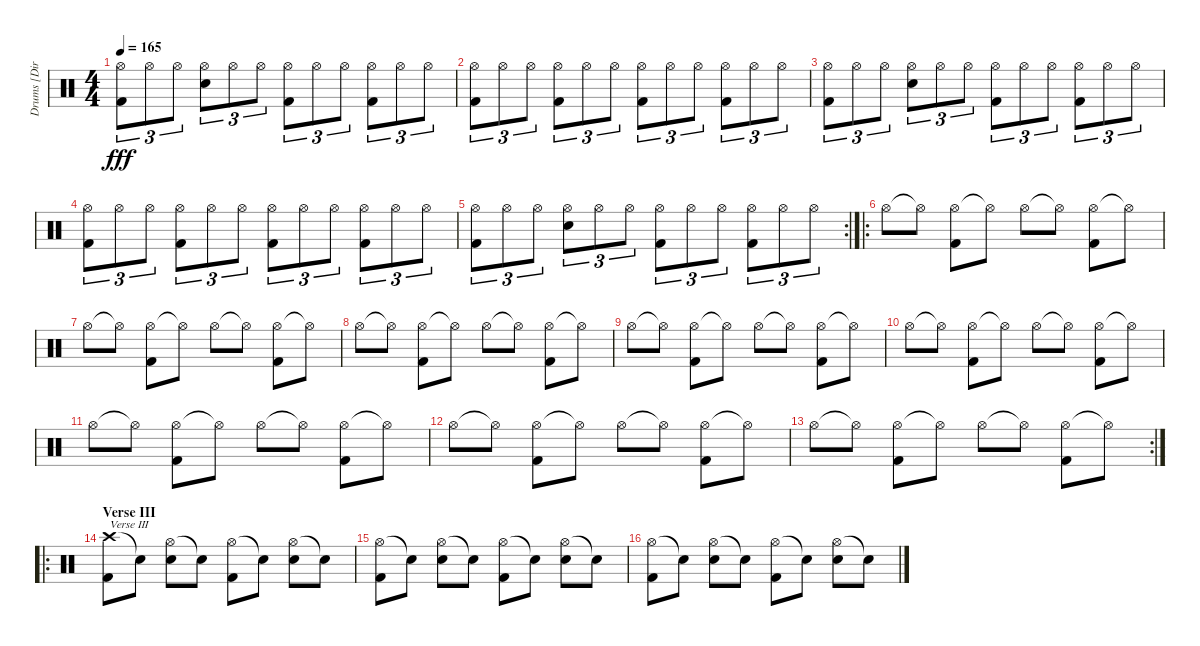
\track ("Drums [Dirge Rep]" "Drums [Dir") {instrument percussion}
\staff {score}
\articulation defaults
\ts (4 4)
\tempo 165
\clef neutral
\ks c
("Hi-Hat (open)" "Kick (hit) 2").8{tu (3 2) dy fff} "Hi-Hat (open)".8{tu (3 2)} "Hi-Hat (open)".8{tu (3 2)} ("Hi-Hat (open)" "Electric Snare (hit)").8{tu (3 2)} "Hi-Hat (open)".8{tu (3 2)} "Hi-Hat (open)".8{tu (3 2)} ("Hi-Hat (open)" "Kick (hit) 2").8{tu (3 2)} "Hi-Hat (open)".8{tu (3 2)} "Hi-Hat (open)".8{tu (3 2)} ("Hi-Hat (open)" "Kick (hit) 2").8{tu (3 2)} "Hi-Hat (open)".8{tu (3 2)} "Hi-Hat (open)".8{tu (3 2)} |
("Hi-Hat (open)" "Kick (hit) 2").8{tu (3 2)} "Hi-Hat (open)".8{tu (3 2)} "Hi-Hat (open)".8{tu (3 2)} ("Hi-Hat (open)" "Kick (hit) 2").8{tu (3 2)} "Hi-Hat (open)".8{tu (3 2)} "Hi-Hat (open)".8{tu (3 2)} ("Hi-Hat (open)" "Kick (hit) 2").8{tu (3 2)} "Hi-Hat (open)".8{tu (3 2)} "Hi-Hat (open)".8{tu (3 2)} ("Hi-Hat (open)" "Kick (hit) 2").8{tu (3 2)} "Hi-Hat (open)".8{tu (3 2)} "Hi-Hat (open)".8{tu (3 2)} |
("Hi-Hat (open)" "Kick (hit) 2").8{tu (3 2)} "Hi-Hat (open)".8{tu (3 2)} "Hi-Hat (open)".8{tu (3 2)} ("Hi-Hat (open)" "Electric Snare (hit)").8{tu (3 2)} "Hi-Hat (open)".8{tu (3 2)} "Hi-Hat (open)".8{tu (3 2)} ("Hi-Hat (open)" "Kick (hit) 2").8{tu (3 2)} "Hi-Hat (open)".8{tu (3 2)} "Hi-Hat (open)".8{tu (3 2)} ("Hi-Hat (open)" "Kick (hit) 2").8{tu (3 2)} "Hi-Hat (open)".8{tu (3 2)} "Hi-Hat (open)".8{tu (3 2)} |
("Hi-Hat (open)" "Kick (hit) 2").8{tu (3 2)} "Hi-Hat (open)".8{tu (3 2)} "Hi-Hat (open)".8{tu (3 2)} ("Hi-Hat (open)" "Kick (hit) 2").8{tu (3 2)} "Hi-Hat (open)".8{tu (3 2)} "Hi-Hat (open)".8{tu (3 2)} ("Hi-Hat (open)" "Kick (hit) 2").8{tu (3 2)} "Hi-Hat (open)".8{tu (3 2)} "Hi-Hat (open)".8{tu (3 2)} ("Hi-Hat (open)" "Kick (hit) 2").8{tu (3 2)} "Hi-Hat (open)".8{tu (3 2)} "Hi-Hat (open)".8{tu (3 2)} |
\rc 2
("Hi-Hat (open)" "Kick (hit) 2").8{tu (3 2)} "Hi-Hat (open)".8{tu (3 2)} "Hi-Hat (open)".8{tu (3 2)} ("Hi-Hat (open)" "Electric Snare (hit)").8{tu (3 2)} "Hi-Hat (open)".8{tu (3 2)} "Hi-Hat (open)".8{tu (3 2)} ("Hi-Hat (open)" "Kick (hit) 2").8{tu (3 2)} "Hi-Hat (open)".8{tu (3 2)} "Hi-Hat (open)".8{tu (3 2)} ("Hi-Hat (open)" "Kick (hit) 2").8{tu (3 2)} "Hi-Hat (open)".8{tu (3 2)} "Hi-Hat (open)".8{tu (3 2)} |
\ro "Hi-Hat (open)".8 "Hi-Hat (open)"{t}.8
("Hi-Hat (open)" "Kick (hit) 2").8 "Hi-Hat (open)"{t}.8 "Hi-Hat (open)".8 "Hi-Hat (open)"{t}.8 ("Hi-Hat (open)" "Kick (hit) 2").8 "Hi-Hat (open)"{t}.8 |
"Hi-Hat (open)".8 "Hi-Hat (open)"{t}.8 ("Hi-Hat (open)" "Kick (hit) 2").8 "Hi-Hat (open)"{t}.8 "Hi-Hat (open)".8 "Hi-Hat (open)"{t}.8 ("Hi-Hat (open)" "Kick (hit) 2").8 "Hi-Hat (open)"{t}.8 |
"Hi-Hat (open)".8 "Hi-Hat (open)"{t}.8 ("Hi-Hat (open)" "Kick (hit) 2").8 "Hi-Hat (open)"{t}.8 "Hi-Hat (open)".8 "Hi-Hat (open)"{t}.8 ("Hi-Hat (open)" "Kick (hit) 2").8 "Hi-Hat (open)"{t}.8 |
"Hi-Hat (open)".8 "Hi-Hat (open)"{t}.8 ("Hi-Hat (open)" "Kick (hit) 2").8 "Hi-Hat (open)"{t}.8 "Hi-Hat (open)".8 "Hi-Hat (open)"{t}.8 ("Hi-Hat (open)" "Kick (hit) 2").8 "Hi-Hat (open)"{t}.8 |
"Hi-Hat (open)".8 "Hi-Hat (open)"{t}.8 ("Hi-Hat (open)" "Kick (hit) 2").8 "Hi-Hat (open)"{t}.8 "Hi-Hat (open)".8 "Hi-Hat (open)"{t}.8 ("Hi-Hat (open)" "Kick (hit) 2").8 "Hi-Hat (open)"{t}.8 |
"Hi-Hat (open)".8 "Hi-Hat (open)"{t}.8 ("Hi-Hat (open)" "Kick (hit) 2").8 "Hi-Hat (open)"{t}.8 "Hi-Hat (open)".8 "Hi-Hat (open)"{t}.8 ("Hi-Hat (open)" "Kick (hit) 2").8 "Hi-Hat (open)"{t}.8 |
"Hi-Hat (open)".8 "Hi-Hat (open)"{t}.8 ("Hi-Hat (open)" "Kick (hit) 2").8 "Hi-Hat (open)"{t}.8 "Hi-Hat (open)".8 "Hi-Hat (open)"{t}.8 ("Hi-Hat (open)" "Kick (hit) 2").8 "Hi-Hat (open)"{t}.8 |
\rc 2 "Hi-Hat (open)".8 "Hi-Hat (open)"{t}.8
("Hi-Hat (open)" "Kick (hit) 2").8 "Hi-Hat (open)"{t}.8 "Hi-Hat (open)".8 "Hi-Hat (open)"{t}.8 ("Hi-Hat (open)" "Kick (hit) 2").8 "Hi-Hat (open)"{t}.8 |
\ro
\section ("" "Verse III")
("Crash high (hit)" "Kick (hit) 2").8{txt "Verse III"} "Snare (hit)"{t}.8 ("Hi-Hat (open)" "Electric Snare (hit)").8 "Snare (hit)"{t}.8 ("Hi-Hat (open)" "Kick (hit) 2").8 "Snare (hit)"{t}.8 ("Hi-Hat (open)" "Electric Snare (hit)").8 "Snare (hit)"{t}.8 |
("Hi-Hat (open)" "Kick (hit) 2").8 "Snare (hit)"{t}.8 ("Hi-Hat (open)" "Electric Snare (hit)").8 "Snare (hit)"{t}.8 ("Hi-Hat (open)" "Kick (hit) 2").8 "Snare (hit)"{t}.8 ("Hi-Hat (open)" "Electric Snare (hit)").8 "Snare (hit)"{t}.8 |
("Hi-Hat (open)" "Kick (hit) 2").8 "Snare (hit)"{t}.8 ("Hi-Hat (open)" "Electric Snare (hit)").8 "Snare (hit)"{t}.8 ("Hi-Hat (open)" "Kick (hit) 2").8 "Snare (hit)"{t}.8 ("Hi-Hat (open)" "Electric Snare (hit)").8 "Snare (hit)"{t}.8
